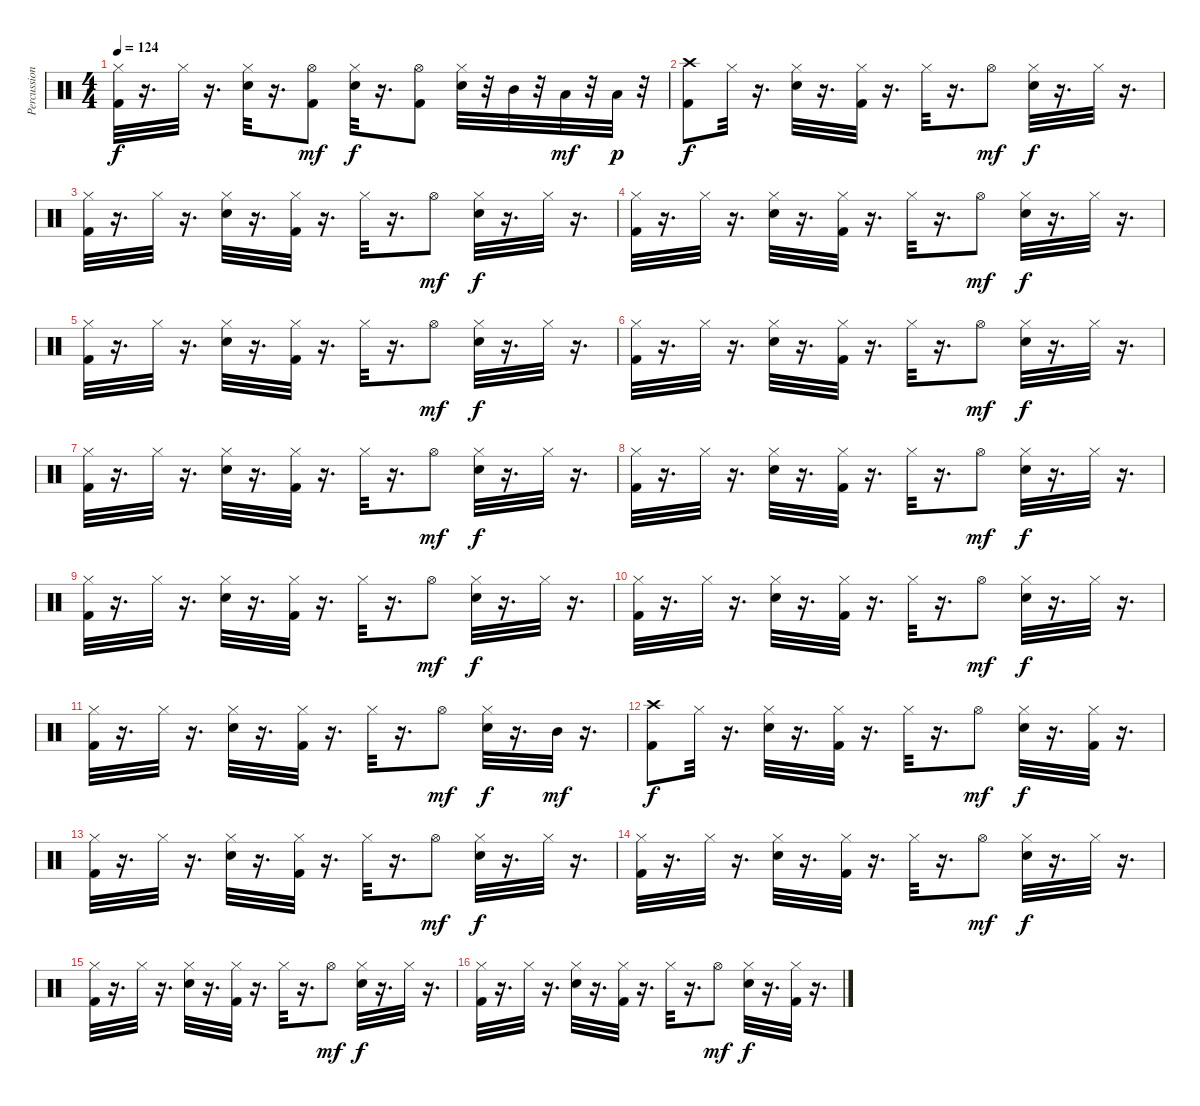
\track ("Percussions" "Percussion") {instrument percussion}
\staff {score}
\articulation defaults
\ts (4 4)
\tempo 124
\clef neutral
\ks c
("Kick (hit) 2" "Hi-Hat (closed)").32{dy f} r.16{d} "Hi-Hat (closed)".32 r.16{d} ("Snare (hit) 2" "Hi-Hat (closed)").32 r.16{d} ("Kick (hit) 2" "Hi-Hat (open)").8{dy mf} ("Snare (hit) 2" "Hi-Hat (closed)").32{dy f} r.16{d} ("Kick (hit) 2" "Hi-Hat (open)").8 ("Snare (hit) 2" "Hi-Hat (closed)").32 r.32 "Mid Tom (hit)".32 r.32 "Low Tom (hit)".32{dy mf} r.32 "Low Tom (hit)".32{dy p} r.32 |
("Kick (hit) 2" "Crash high (hit)").8{dy f} "Hi-Hat (closed)".32 r.16{d} ("Snare (hit) 2" "Hi-Hat (closed)").32 r.16{d} ("Kick (hit) 2" "Hi-Hat (closed)").32 r.16{d} "Hi-Hat (closed)".32 r.16{d} "Hi-Hat (open)".8{dy mf} ("Snare (hit) 2" "Hi-Hat (closed)").32{dy f} r.16{d} "Hi-Hat (closed)".32 r.16{d} |
("Kick (hit) 2" "Hi-Hat (closed)").32 r.16{d} "Hi-Hat (closed)".32 r.16{d} ("Snare (hit) 2" "Hi-Hat (closed)").32 r.16{d} ("Kick (hit) 2" "Hi-Hat (closed)").32 r.16{d} "Hi-Hat (closed)".32 r.16{d} "Hi-Hat (open)".8{dy mf} ("Snare (hit) 2" "Hi-Hat (closed)").32{dy f} r.16{d} "Hi-Hat (closed)".32 r.16{d} |
("Kick (hit) 2" "Hi-Hat (closed)").32 r.16{d} "Hi-Hat (closed)".32 r.16{d} ("Snare (hit) 2" "Hi-Hat (closed)").32 r.16{d} ("Kick (hit) 2" "Hi-Hat (closed)").32 r.16{d} "Hi-Hat (closed)".32 r.16{d} "Hi-Hat (open)".8{dy mf} ("Snare (hit) 2" "Hi-Hat (closed)").32{dy f} r.16{d} "Hi-Hat (closed)".32 r.16{d} |
("Kick (hit) 2" "Hi-Hat (closed)").32 r.16{d} "Hi-Hat (closed)".32 r.16{d} ("Snare (hit) 2" "Hi-Hat (closed)").32 r.16{d} ("Kick (hit) 2" "Hi-Hat (closed)").32 r.16{d} "Hi-Hat (closed)".32 r.16{d} "Hi-Hat (open)".8{dy mf} ("Snare (hit) 2" "Hi-Hat (closed)").32{dy f} r.16{d} "Hi-Hat (closed)".32 r.16{d} |
("Kick (hit) 2" "Hi-Hat (closed)").32 r.16{d} "Hi-Hat (closed)".32 r.16{d} ("Snare (hit) 2" "Hi-Hat (closed)").32 r.16{d} ("Kick (hit) 2" "Hi-Hat (closed)").32 r.16{d} "Hi-Hat (closed)".32 r.16{d} "Hi-Hat (open)".8{dy mf} ("Snare (hit) 2" "Hi-Hat (closed)").32{dy f} r.16{d} "Hi-Hat (closed)".32 r.16{d} |
("Kick (hit) 2" "Hi-Hat (closed)").32 r.16{d} "Hi-Hat (closed)".32 r.16{d} ("Snare (hit) 2" "Hi-Hat (closed)").32 r.16{d} ("Kick (hit) 2" "Hi-Hat (closed)").32 r.16{d} "Hi-Hat (closed)".32 r.16{d} "Hi-Hat (open)".8{dy mf} ("Snare (hit) 2" "Hi-Hat (closed)").32{dy f} r.16{d} "Hi-Hat (closed)".32 r.16{d} |
("Kick (hit) 2" "Hi-Hat (closed)").32 r.16{d} "Hi-Hat (closed)".32 r.16{d} ("Snare (hit) 2" "Hi-Hat (closed)").32 r.16{d} ("Kick (hit) 2" "Hi-Hat (closed)").32 r.16{d} "Hi-Hat (closed)".32 r.16{d} "Hi-Hat (open)".8{dy mf} ("Snare (hit) 2" "Hi-Hat (closed)").32{dy f} r.16{d} "Hi-Hat (closed)".32 r.16{d} |
("Kick (hit) 2" "Hi-Hat (closed)").32 r.16{d} "Hi-Hat (closed)".32 r.16{d} ("Snare (hit) 2" "Hi-Hat (closed)").32 r.16{d} ("Kick (hit) 2" "Hi-Hat (closed)").32 r.16{d} "Hi-Hat (closed)".32 r.16{d} "Hi-Hat (open)".8{dy mf} ("Snare (hit) 2" "Hi-Hat (closed)").32{dy f} r.16{d} "Hi-Hat (closed)".32 r.16{d} |
("Kick (hit) 2" "Hi-Hat (closed)").32 r.16{d} "Hi-Hat (closed)".32 r.16{d} ("Snare (hit) 2" "Hi-Hat (closed)").32 r.16{d} ("Kick (hit) 2" "Hi-Hat (closed)").32 r.16{d} "Hi-Hat (closed)".32 r.16{d} "Hi-Hat (open)".8{dy mf} ("Snare (hit) 2" "Hi-Hat (closed)").32{dy f} r.16{d} "Hi-Hat (closed)".32 r.16{d} |
("Kick (hit) 2" "Hi-Hat (closed)").32 r.16{d} "Hi-Hat (closed)".32 r.16{d} ("Snare (hit) 2" "Hi-Hat (closed)").32 r.16{d} ("Kick (hit) 2" "Hi-Hat (closed)").32 r.16{d} "Hi-Hat (closed)".32 r.16{d} "Hi-Hat (open)".8{dy mf} ("Snare (hit) 2" "Hi-Hat (closed)").32{dy f} r.16{d} "Mid Tom (hit)".32{dy mf} r.16{d} |
("Kick (hit) 2" "Crash high (hit)").8{dy f} "Hi-Hat (closed)".32 r.16{d} ("Snare (hit) 2" "Hi-Hat (closed)").32 r.16{d} ("Kick (hit) 2" "Hi-Hat (closed)").32 r.16{d} "Hi-Hat (closed)".32 r.16{d} "Hi-Hat (open)".8{dy mf} ("Snare (hit) 2" "Hi-Hat (closed)").32{dy f} r.16{d} ("Kick (hit) 2" "Hi-Hat (closed)").32 r.16{d} |
("Kick (hit) 2" "Hi-Hat (closed)").32 r.16{d} "Hi-Hat (closed)".32 r.16{d} ("Snare (hit) 2" "Hi-Hat (closed)").32 r.16{d} ("Kick (hit) 2" "Hi-Hat (closed)").32 r.16{d} "Hi-Hat (closed)".32 r.16{d} "Hi-Hat (open)".8{dy mf} ("Snare (hit) 2" "Hi-Hat (closed)").32{dy f} r.16{d} "Hi-Hat (closed)".32 r.16{d} |
("Kick (hit) 2" "Hi-Hat (closed)").32 r.16{d} "Hi-Hat (closed)".32 r.16{d} ("Snare (hit) 2" "Hi-Hat (closed)").32 r.16{d} ("Kick (hit) 2" "Hi-Hat (closed)").32 r.16{d} "Hi-Hat (closed)".32 r.16{d} "Hi-Hat (open)".8{dy mf} ("Snare (hit) 2" "Hi-Hat (closed)").32{dy f} r.16{d} "Hi-Hat (closed)".32 r.16{d} |
("Kick (hit) 2" "Hi-Hat (closed)").32 r.16{d} "Hi-Hat (closed)".32 r.16{d} ("Snare (hit) 2" "Hi-Hat (closed)").32 r.16{d} ("Kick (hit) 2" "Hi-Hat (closed)").32 r.16{d} "Hi-Hat (closed)".32 r.16{d} "Hi-Hat (open)".8{dy mf} ("Snare (hit) 2" "Hi-Hat (closed)").32{dy f} r.16{d} "Hi-Hat (closed)".32 r.16{d} |
("Kick (hit) 2" "Hi-Hat (closed)").32 r.16{d} "Hi-Hat (closed)".32 r.16{d} ("Snare (hit) 2" "Hi-Hat (closed)").32 r.16{d} ("Kick (hit) 2" "Hi-Hat (closed)").32 r.16{d} "Hi-Hat (closed)".32 r.16{d} "Hi-Hat (open)".8{dy mf} ("Snare (hit) 2" "Hi-Hat (closed)").32{dy f} r.16{d} ("Kick (hit) 2" "Hi-Hat (closed)").32 r.16{d}
